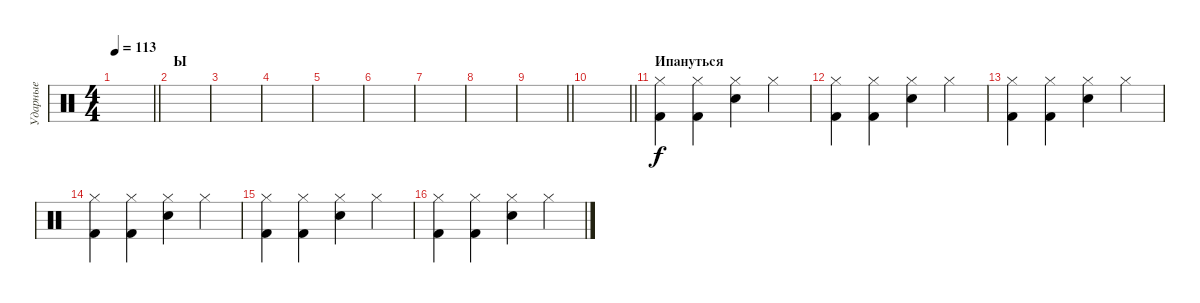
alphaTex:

\track ("Ударные" "Ударные") {instrument percussion}
\staff {score}
\articulation defaults
\ts (4 4)
\tempo 113
\clef neutral
\barLineRight lightlight
\ks c
|
\section ("" "Ы")
|
|
|
|
|
|
|
\barLineRight lightlight
|
\barLineRight lightlight
|
\section ("" "Ипануться")
("Hi-Hat (closed)" "Kick (hit) 2").4 ("Hi-Hat (closed)" "Kick (hit) 2").4 ("Hi-Hat (closed)" "Electric Snare (hit)").4 "Hi-Hat (closed)".4 |
("Hi-Hat (closed)" "Kick (hit) 2").4 ("Hi-Hat (closed)" "Kick (hit) 2").4 ("Hi-Hat (closed)" "Electric Snare (hit)").4 "Hi-Hat (closed)".4 |
("Hi-Hat (closed)" "Kick (hit) 2").4 ("Hi-Hat (closed)" "Kick (hit) 2").4 ("Hi-Hat (closed)" "Electric Snare (hit)").4 "Hi-Hat (closed)".4 |
("Hi-Hat (closed)" "Kick (hit) 2").4 ("Hi-Hat (closed)" "Kick (hit) 2").4 ("Hi-Hat (closed)" "Electric Snare (hit)").4 "Hi-Hat (closed)".4 |
("Hi-Hat (closed)" "Kick (hit) 2").4 ("Hi-Hat (closed)" "Kick (hit) 2").4 ("Hi-Hat (closed)" "Electric Snare (hit)").4 "Hi-Hat (closed)".4 |
("Hi-Hat (closed)" "Kick (hit) 2").4 ("Hi-Hat (closed)" "Kick (hit) 2").4 ("Hi-Hat (closed)" "Electric Snare (hit)").4 "Hi-Hat (closed)".4
